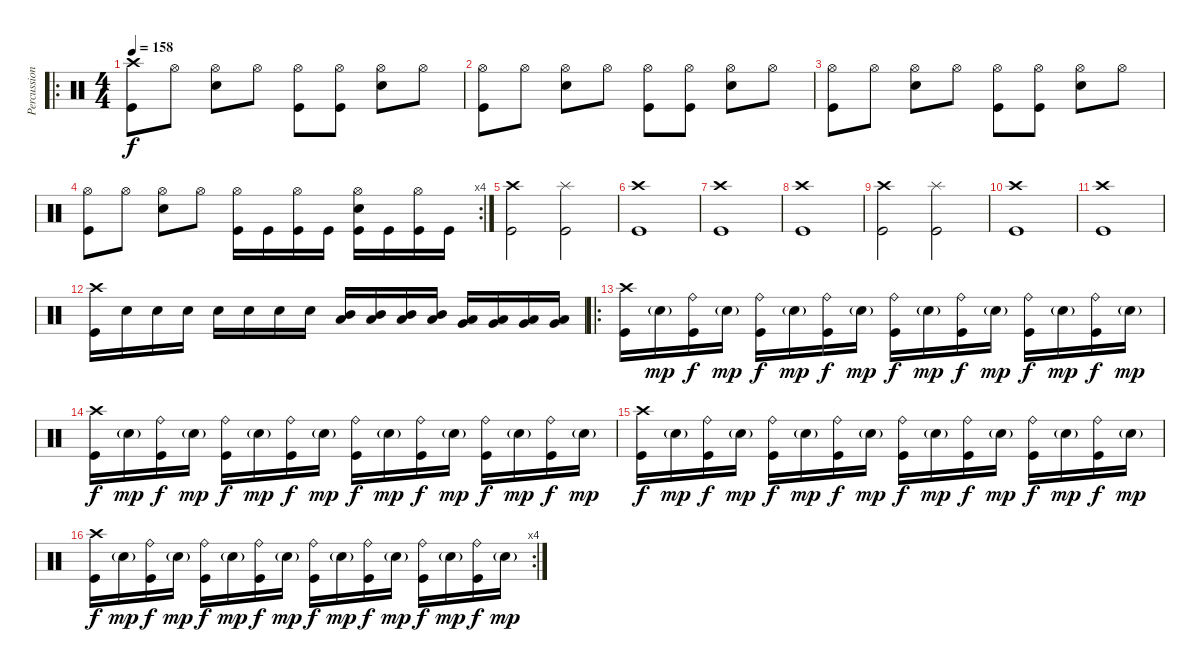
\track ("Percussion" "Percussion") {instrument percussion}
\staff {score}
\articulation defaults
\ro
\ts (4 4)
\tempo 158
\clef neutral
\ks c
("Crash high (hit)" "Kick (hit)").8{dy f} "Hi-Hat (open)".8 ("Hi-Hat (open)" "Snare (hit) 2").8 "Hi-Hat (open)".8 ("Hi-Hat (open)" "Kick (hit)").8 ("Hi-Hat (open)" "Kick (hit)").8 ("Hi-Hat (open)" "Snare (hit) 2").8 "Hi-Hat (open)".8 |
("Hi-Hat (open)" "Kick (hit)").8 "Hi-Hat (open)".8 ("Hi-Hat (open)" "Snare (hit) 2").8 "Hi-Hat (open)".8 ("Hi-Hat (open)" "Kick (hit)").8 ("Hi-Hat (open)" "Kick (hit)").8 ("Hi-Hat (open)" "Snare (hit) 2").8 "Hi-Hat (open)".8 |
("Hi-Hat (open)" "Kick (hit)").8 "Hi-Hat (open)".8 ("Hi-Hat (open)" "Snare (hit) 2").8 "Hi-Hat (open)".8 ("Hi-Hat (open)" "Kick (hit)").8 ("Hi-Hat (open)" "Kick (hit)").8 ("Hi-Hat (open)" "Snare (hit) 2").8 "Hi-Hat (open)".8 |
\rc 4
("Hi-Hat (open)" "Kick (hit)").8 "Hi-Hat (open)".8 ("Hi-Hat (open)" "Snare (hit) 2").8 "Hi-Hat (open)".8 ("Hi-Hat (open)" "Kick (hit)").16 "Kick (hit)".16 ("Hi-Hat (open)" "Kick (hit)").16 "Kick (hit)".16 ("Hi-Hat (open)" "Snare (hit) 2" "Kick (hit)").16 "Kick (hit)".16 ("Hi-Hat (open)" "Kick (hit)").16 "Kick (hit)".16 |
("Crash high (hit)" "Kick (hit)").2 ("Splash (hit)" "Kick (hit)").2 |
("Crash high (hit)" "Kick (hit)").1 |
("Crash high (hit)" "Kick (hit)").1 |
("Crash high (hit)" "Kick (hit)").1 |
("Crash high (hit)" "Kick (hit)").2 ("Splash (hit)" "Kick (hit)").2 |
("Crash high (hit)" "Kick (hit)").1 |
("Crash high (hit)" "Kick (hit)").1 |
("Crash high (hit)" "Kick (hit)").16 "Snare (hit) 2".16 "Snare (hit) 2".16 "Snare (hit) 2".16 "Snare (hit) 2".16 "Snare (hit) 2".16 "Snare (hit) 2".16 "Snare (hit) 2".16 ("Mid Tom (hit)" "Low Tom (hit)").16 ("Mid Tom (hit)" "Low Tom (hit)").16 ("Mid Tom (hit)" "Low Tom (hit)").16 ("Mid Tom (hit)" "Low Tom (hit)").16 ("Low Tom (hit)" "Very Low Tom (hit)").16 ("Low Tom (hit)" "Very Low Tom (hit)").16 ("Very Low Tom (hit)" "Low Floor Tom (hit)").16 ("Very Low Tom (hit)" "Low Floor Tom (hit)").16 |
\ro
("Crash high (hit)" "Kick (hit)").16 "Snare (hit) 2"{g}.16{dy mp} ("Ride (bell)" "Kick (hit)").16{dy f} "Snare (hit) 2"{g}.16{dy mp} ("Ride (bell)" "Kick (hit)").16{dy f} "Snare (hit) 2"{g}.16{dy mp} ("Ride (bell)" "Kick (hit)").16{dy f} "Snare (hit) 2"{g}.16{dy mp} ("Ride (bell)" "Kick (hit)").16{dy f} "Snare (hit) 2"{g}.16{dy mp} ("Ride (bell)" "Kick (hit)").16{dy f} "Snare (hit) 2"{g}.16{dy mp} ("Ride (bell)" "Kick (hit)").16{dy f} "Snare (hit) 2"{g}.16{dy mp} ("Ride (bell)" "Kick (hit)").16{dy f} "Snare (hit) 2"{g}.16{dy mp} |
("Crash high (hit)" "Kick (hit)").16{dy f} "Snare (hit) 2"{g}.16{dy mp} ("Ride (bell)" "Kick (hit)").16{dy f} "Snare (hit) 2"{g}.16{dy mp} ("Ride (bell)" "Kick (hit)").16{dy f} "Snare (hit) 2"{g}.16{dy mp} ("Ride (bell)" "Kick (hit)").16{dy f} "Snare (hit) 2"{g}.16{dy mp} ("Ride (bell)" "Kick (hit)").16{dy f} "Snare (hit) 2"{g}.16{dy mp} ("Ride (bell)" "Kick (hit)").16{dy f} "Snare (hit) 2"{g}.16{dy mp} ("Ride (bell)" "Kick (hit)").16{dy f} "Snare (hit) 2"{g}.16{dy mp} ("Ride (bell)" "Kick (hit)").16{dy f} "Snare (hit) 2"{g}.16{dy mp} |
("Crash high (hit)" "Kick (hit)").16{dy f} "Snare (hit) 2"{g}.16{dy mp} ("Ride (bell)" "Kick (hit)").16{dy f} "Snare (hit) 2"{g}.16{dy mp} ("Ride (bell)" "Kick (hit)").16{dy f} "Snare (hit) 2"{g}.16{dy mp} ("Ride (bell)" "Kick (hit)").16{dy f} "Snare (hit) 2"{g}.16{dy mp} ("Ride (bell)" "Kick (hit)").16{dy f} "Snare (hit) 2"{g}.16{dy mp} ("Ride (bell)" "Kick (hit)").16{dy f} "Snare (hit) 2"{g}.16{dy mp} ("Ride (bell)" "Kick (hit)").16{dy f} "Snare (hit) 2"{g}.16{dy mp} ("Ride (bell)" "Kick (hit)").16{dy f} "Snare (hit) 2"{g}.16{dy mp} |
\rc 4
("Crash high (hit)" "Kick (hit)").16{dy f} "Snare (hit) 2"{g}.16{dy mp} ("Ride (bell)" "Kick (hit)").16{dy f} "Snare (hit) 2"{g}.16{dy mp} ("Ride (bell)" "Kick (hit)").16{dy f} "Snare (hit) 2"{g}.16{dy mp} ("Ride (bell)" "Kick (hit)").16{dy f} "Snare (hit) 2"{g}.16{dy mp} ("Ride (bell)" "Kick (hit)").16{dy f} "Snare (hit) 2"{g}.16{dy mp} ("Ride (bell)" "Kick (hit)").16{dy f} "Snare (hit) 2"{g}.16{dy mp} ("Ride (bell)" "Kick (hit)").16{dy f} "Snare (hit) 2"{g}.16{dy mp} ("Ride (bell)" "Kick (hit)").16{dy f} "Snare (hit) 2"{g}.16{dy mp}
